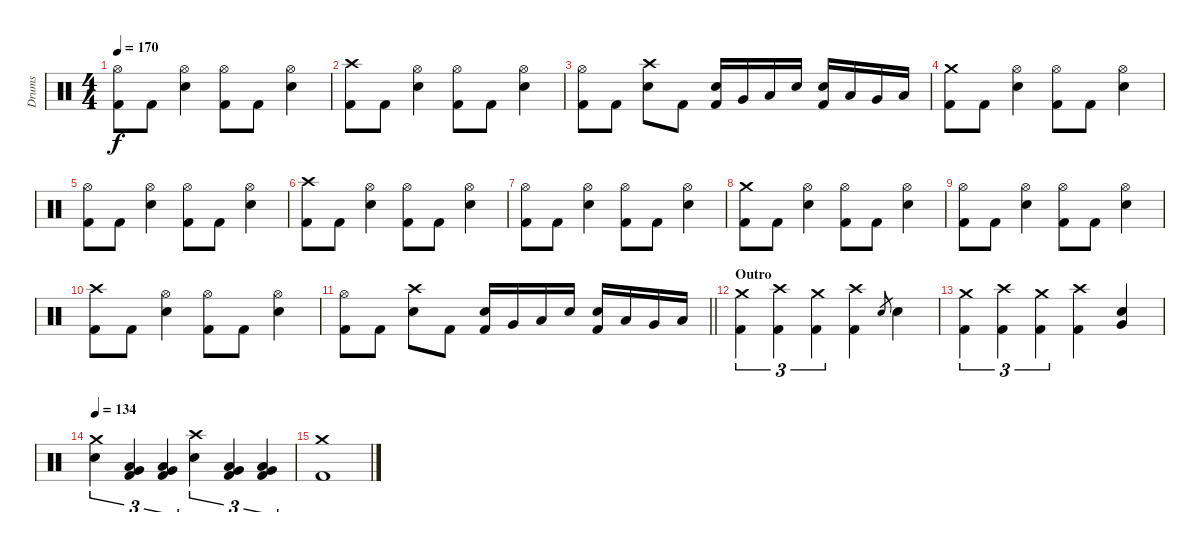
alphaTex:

\track ("Drums" "Drums") {instrument percussion}
\staff {score}
\articulation defaults
\ts (4 4)
\tempo 170
\clef neutral
\ks c
("Hi-Hat (open)" "Kick (hit) 2").8{dy f} "Kick (hit) 2".8 ("Hi-Hat (open)" "Electric Snare (hit)").4 ("Hi-Hat (open)" "Kick (hit) 2").8 "Kick (hit) 2".8 ("Hi-Hat (open)" "Electric Snare (hit)").4 |
("Crash high (hit)" "Kick (hit) 2").8 "Kick (hit) 2".8 ("Hi-Hat (open)" "Electric Snare (hit)").4 ("Hi-Hat (open)" "Kick (hit) 2").8 "Kick (hit) 2".8 ("Hi-Hat (open)" "Electric Snare (hit)").4 |
("Hi-Hat (open)" "Kick (hit) 2").8 "Kick (hit) 2".8 ("Crash high (hit)" "Electric Snare (hit)").8 "Kick (hit) 2".8 ("Electric Snare (hit)" "Kick (hit) 2").16 "Very Low Tom (hit)".16 "Low Floor Tom (hit)".16 "Electric Snare (hit)".16 ("Electric Snare (hit)" "Kick (hit) 2").16 "Low Tom (hit)".16 "Very Low Tom (hit)".16 "Low Floor Tom (hit)".16 |
("Crash medium (hit)" "Kick (hit) 2").8 "Kick (hit) 2".8 ("Hi-Hat (open)" "Electric Snare (hit)").4 ("Hi-Hat (open)" "Kick (hit) 2").8 "Kick (hit) 2".8 ("Hi-Hat (open)" "Electric Snare (hit)").4 |
("Hi-Hat (open)" "Kick (hit) 2").8 "Kick (hit) 2".8 ("Hi-Hat (open)" "Electric Snare (hit)").4 ("Hi-Hat (open)" "Kick (hit) 2").8 "Kick (hit) 2".8 ("Hi-Hat (open)" "Electric Snare (hit)").4 |
("Crash high (hit)" "Kick (hit) 2").8 "Kick (hit) 2".8 ("Hi-Hat (open)" "Electric Snare (hit)").4 ("Hi-Hat (open)" "Kick (hit) 2").8 "Kick (hit) 2".8 ("Hi-Hat (open)" "Electric Snare (hit)").4 |
("Hi-Hat (open)" "Kick (hit) 2").8 "Kick (hit) 2".8 ("Hi-Hat (open)" "Electric Snare (hit)").4 ("Hi-Hat (open)" "Kick (hit) 2").8 "Kick (hit) 2".8 ("Hi-Hat (open)" "Electric Snare (hit)").4 |
("Crash medium (hit)" "Kick (hit) 2").8 "Kick (hit) 2".8 ("Hi-Hat (open)" "Electric Snare (hit)").4 ("Hi-Hat (open)" "Kick (hit) 2").8 "Kick (hit) 2".8 ("Hi-Hat (open)" "Electric Snare (hit)").4 |
("Hi-Hat (open)" "Kick (hit) 2").8 "Kick (hit) 2".8 ("Hi-Hat (open)" "Electric Snare (hit)").4 ("Hi-Hat (open)" "Kick (hit) 2").8 "Kick (hit) 2".8 ("Hi-Hat (open)" "Electric Snare (hit)").4 |
("Crash high (hit)" "Kick (hit) 2").8 "Kick (hit) 2".8 ("Hi-Hat (open)" "Electric Snare (hit)").4 ("Hi-Hat (open)" "Kick (hit) 2").8 "Kick (hit) 2".8 ("Hi-Hat (open)" "Electric Snare (hit)").4 |
\barLineRight lightlight
("Hi-Hat (open)" "Kick (hit) 2").8 "Kick (hit) 2".8 ("Crash high (hit)" "Electric Snare (hit)").8 "Kick (hit) 2".8 ("Electric Snare (hit)" "Kick (hit) 2").16 "Very Low Tom (hit)".16 "Low Floor Tom (hit)".16 "Electric Snare (hit)".16 ("Electric Snare (hit)" "Kick (hit) 2").16 "Low Tom (hit)".16 "Very Low Tom (hit)".16 "Low Floor Tom (hit)".16 |
\section ("" "Outro")
("Crash medium (hit)" "Kick (hit) 2").4{tu (3 2)} ("Crash high (hit)" "Kick (hit) 2").4{tu (3 2)} ("Crash medium (hit)" "Kick (hit) 2").4{tu (3 2)} ("Crash high (hit)" "Kick (hit) 2").4 "Electric Snare (hit)".8{gr} "Electric Snare (hit)".4 |
("Crash medium (hit)" "Kick (hit) 2").4{tu (3 2)} ("Crash high (hit)" "Kick (hit) 2").4{tu (3 2)} ("Crash medium (hit)" "Kick (hit) 2").4{tu (3 2)} ("Crash high (hit)" "Kick (hit) 2").4 ("Electric Snare (hit)" "Very Low Tom (hit)").4 |
\tempo 134
("Crash medium (hit)" "Electric Snare (hit)").4{tu (3 2)} ("Low Floor Tom (hit)" "Very Low Tom (hit)" "Kick (hit) 2").4{tu (3 2)} ("Low Tom (hit)" "Very Low Tom (hit)" "Kick (hit) 2").4{tu (3 2)} ("Crash high (hit)" "Electric Snare (hit)").4{tu (3 2)} ("Low Floor Tom (hit)" "Very Low Tom (hit)" "Kick (hit) 2").4{tu (3 2)} ("Low Tom (hit)" "Very Low Tom (hit)" "Kick (hit) 2").4{tu (3 2)} |
("Crash medium (hit)" "Kick (hit) 2").1
